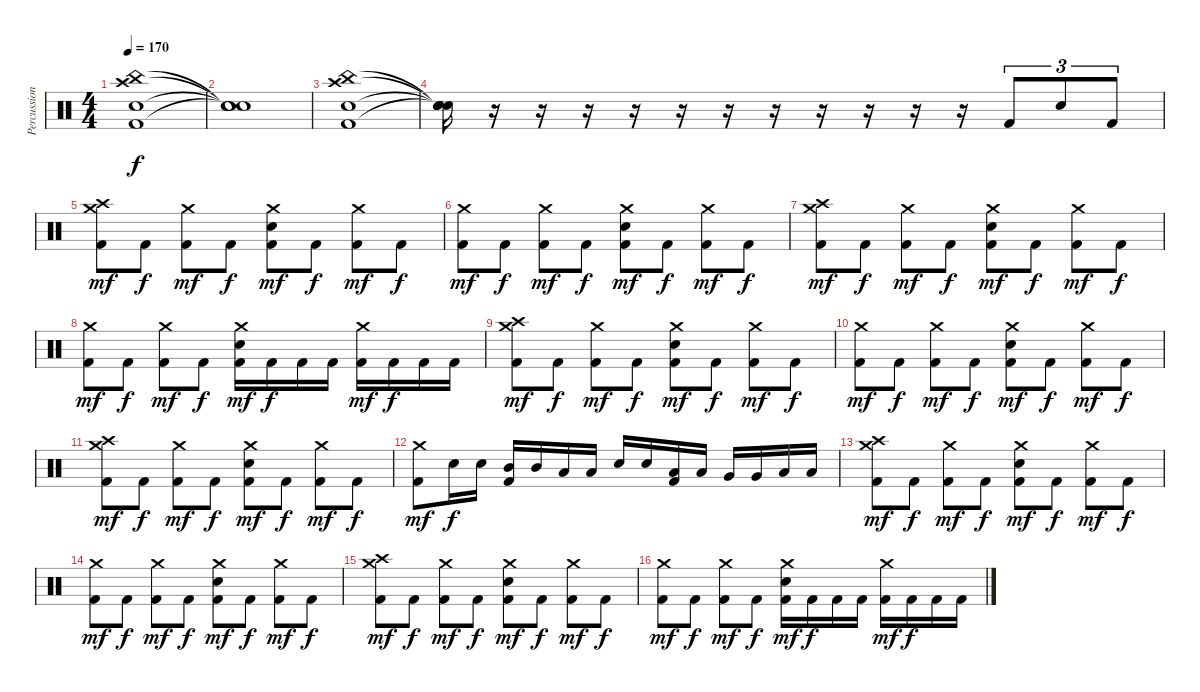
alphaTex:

\track ("Percussions" "Percussion") {instrument percussion}
\staff {score}
\articulation defaults
\ts (4 4)
\tempo 170
\clef neutral
\ks c
("Crash high (hit)" "China (hit)" "Electric Snare (hit)" "Kick (hit) 2").1{dy f} |
("Snare (hit)"{t} "Snare (hit)"{t} "Snare (hit)"{t} "Snare (hit)"{t}).1 |
("Crash high (hit)" "China (hit)" "Electric Snare (hit)" "Kick (hit) 2").1 |
("Snare (hit)"{t} "Snare (hit)"{t} "Snare (hit)"{t} "Snare (hit)"{t}).16 r.16 r.16 r.16 r.16 r.16 r.16 r.16 r.16 r.16 r.16 r.16 "Kick (hit) 2".8{tu (3 2)} "Electric Snare (hit)".8{tu (3 2)} "Kick (hit) 2".8{tu (3 2)} |
("Kick (hit) 2" "Crash high (hit)" "Crash medium (hit)").8{dy mf} "Kick (hit) 2".8{dy f} ("Kick (hit) 2" "Crash medium (hit)").8{dy mf} "Kick (hit) 2".8{dy f} ("Kick (hit) 2" "Snare (hit) 2" "Crash medium (hit)").8{dy mf} "Kick (hit) 2".8{dy f} ("Kick (hit) 2" "Crash medium (hit)").8{dy mf} "Kick (hit) 2".8{dy f} |
("Kick (hit) 2" "Crash medium (hit)").8{dy mf} "Kick (hit) 2".8{dy f} ("Kick (hit) 2" "Crash medium (hit)").8{dy mf} "Kick (hit) 2".8{dy f} ("Kick (hit) 2" "Snare (hit) 2" "Crash medium (hit)").8{dy mf} "Kick (hit) 2".8{dy f} ("Kick (hit) 2" "Crash medium (hit)").8{dy mf} "Kick (hit) 2".8{dy f} |
("Kick (hit) 2" "Crash high (hit)" "Crash medium (hit)").8{dy mf} "Kick (hit) 2".8{dy f} ("Kick (hit) 2" "Crash medium (hit)").8{dy mf} "Kick (hit) 2".8{dy f} ("Kick (hit) 2" "Snare (hit) 2" "Crash medium (hit)").8{dy mf} "Kick (hit) 2".8{dy f} ("Kick (hit) 2" "Crash medium (hit)").8{dy mf} "Kick (hit) 2".8{dy f} |
("Kick (hit) 2" "Crash medium (hit)").8{dy mf} "Kick (hit) 2".8{dy f} ("Kick (hit) 2" "Crash medium (hit)").8{dy mf} "Kick (hit) 2".8{dy f} ("Kick (hit) 2" "Snare (hit) 2" "Crash medium (hit)").16{dy mf} "Kick (hit) 2".16{dy f} "Kick (hit) 2".16 "Kick (hit) 2".16 ("Kick (hit) 2" "Crash medium (hit)").16{dy mf} "Kick (hit) 2".16{dy f} "Kick (hit) 2".16 "Kick (hit) 2".16 |
("Kick (hit) 2" "Crash high (hit)" "Crash medium (hit)").8{dy mf} "Kick (hit) 2".8{dy f} ("Kick (hit) 2" "Crash medium (hit)").8{dy mf} "Kick (hit) 2".8{dy f} ("Kick (hit) 2" "Snare (hit) 2" "Crash medium (hit)").8{dy mf} "Kick (hit) 2".8{dy f} ("Kick (hit) 2" "Crash medium (hit)").8{dy mf} "Kick (hit) 2".8{dy f} |
("Kick (hit) 2" "Crash medium (hit)").8{dy mf} "Kick (hit) 2".8{dy f} ("Kick (hit) 2" "Crash medium (hit)").8{dy mf} "Kick (hit) 2".8{dy f} ("Kick (hit) 2" "Snare (hit) 2" "Crash medium (hit)").8{dy mf} "Kick (hit) 2".8{dy f} ("Kick (hit) 2" "Crash medium (hit)").8{dy mf} "Kick (hit) 2".8{dy f} |
("Kick (hit) 2" "Crash high (hit)" "Crash medium (hit)").8{dy mf} "Kick (hit) 2".8{dy f} ("Kick (hit) 2" "Crash medium (hit)").8{dy mf} "Kick (hit) 2".8{dy f} ("Kick (hit) 2" "Snare (hit) 2" "Crash medium (hit)").8{dy mf} "Kick (hit) 2".8{dy f} ("Kick (hit) 2" "Crash medium (hit)").8{dy mf} "Kick (hit) 2".8{dy f} |
("Kick (hit) 2" "Crash medium (hit)").8{dy mf} "Snare (hit) 2".16{dy f} "Snare (hit) 2".16 ("Kick (hit) 2" "Mid Tom (hit)").16 "Mid Tom (hit)".16 "Low Tom (hit)".16 "Low Tom (hit)".16 "Snare (hit) 2".16 "Snare (hit) 2".16 ("Kick (hit) 2" "Low Tom (hit)").16 "Low Tom (hit)".16 "Very Low Tom (hit)".16 "Very Low Tom (hit)".16 "Low Floor Tom (hit)".16 "Low Floor Tom (hit)".16 |
("Kick (hit) 2" "Crash high (hit)" "Crash medium (hit)").8{dy mf} "Kick (hit) 2".8{dy f} ("Kick (hit) 2" "Crash medium (hit)").8{dy mf} "Kick (hit) 2".8{dy f} ("Kick (hit) 2" "Snare (hit) 2" "Crash medium (hit)").8{dy mf} "Kick (hit) 2".8{dy f} ("Kick (hit) 2" "Crash medium (hit)").8{dy mf} "Kick (hit) 2".8{dy f} |
("Kick (hit) 2" "Crash medium (hit)").8{dy mf} "Kick (hit) 2".8{dy f} ("Kick (hit) 2" "Crash medium (hit)").8{dy mf} "Kick (hit) 2".8{dy f} ("Kick (hit) 2" "Snare (hit) 2" "Crash medium (hit)").8{dy mf} "Kick (hit) 2".8{dy f} ("Kick (hit) 2" "Crash medium (hit)").8{dy mf} "Kick (hit) 2".8{dy f} |
("Kick (hit) 2" "Crash high (hit)" "Crash medium (hit)").8{dy mf} "Kick (hit) 2".8{dy f} ("Kick (hit) 2" "Crash medium (hit)").8{dy mf} "Kick (hit) 2".8{dy f} ("Kick (hit) 2" "Snare (hit) 2" "Crash medium (hit)").8{dy mf} "Kick (hit) 2".8{dy f} ("Kick (hit) 2" "Crash medium (hit)").8{dy mf} "Kick (hit) 2".8{dy f} |
("Kick (hit) 2" "Crash medium (hit)").8{dy mf} "Kick (hit) 2".8{dy f} ("Kick (hit) 2" "Crash medium (hit)").8{dy mf} "Kick (hit) 2".8{dy f} ("Kick (hit) 2" "Snare (hit) 2" "Crash medium (hit)").16{dy mf} "Kick (hit) 2".16{dy f} "Kick (hit) 2".16 "Kick (hit) 2".16 ("Kick (hit) 2" "Crash medium (hit)").16{dy mf} "Kick (hit) 2".16{dy f} "Kick (hit) 2".16 "Kick (hit) 2".16
